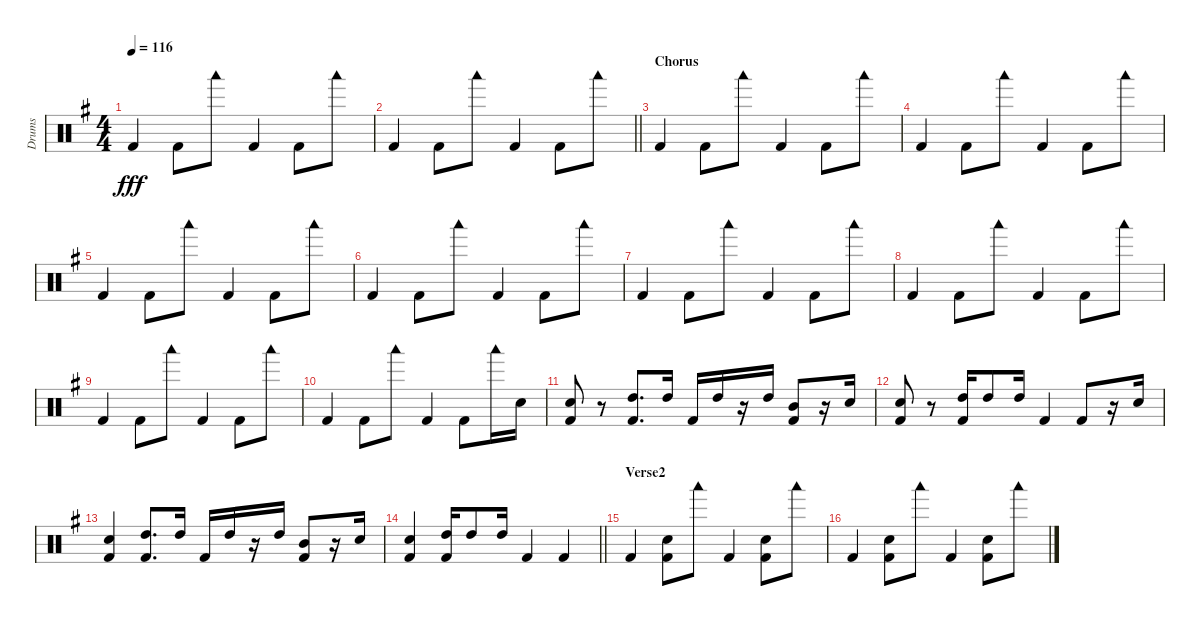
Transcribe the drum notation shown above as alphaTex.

\track ("Drums" "Drums") {instrument percussion}
\staff {score}
\articulation defaults
\ts (4 4)
\tempo 116
\clef neutral
\ks g "Kick (hit) 2".4{dy fff} "Kick (hit) 2".8 "Woodblock low (hit)".8 "Kick (hit) 2".4 "Kick (hit) 2".8 "Woodblock low (hit)".8
|
\barLineRight lightlight "Kick (hit) 2".4 "Kick (hit) 2".8 "Woodblock low (hit)".8 "Kick (hit) 2".4 "Kick (hit) 2".8 "Woodblock low (hit)".8
|
\section ("" "Chorus")
"Kick (hit) 2".4 "Kick (hit) 2".8 "Woodblock low (hit)".8 "Kick (hit) 2".4 "Kick (hit) 2".8 "Woodblock low (hit)".8 |
"Kick (hit) 2".4 "Kick (hit) 2".8 "Woodblock low (hit)".8 "Kick (hit) 2".4 "Kick (hit) 2".8 "Woodblock low (hit)".8 |
"Kick (hit) 2".4 "Kick (hit) 2".8 "Woodblock low (hit)".8 "Kick (hit) 2".4 "Kick (hit) 2".8 "Woodblock low (hit)".8 |
"Kick (hit) 2".4 "Kick (hit) 2".8 "Woodblock low (hit)".8 "Kick (hit) 2".4 "Kick (hit) 2".8 "Woodblock low (hit)".8 |
"Kick (hit) 2".4 "Kick (hit) 2".8 "Woodblock low (hit)".8 "Kick (hit) 2".4 "Kick (hit) 2".8 "Woodblock low (hit)".8 |
"Kick (hit) 2".4 "Kick (hit) 2".8 "Woodblock low (hit)".8 "Kick (hit) 2".4 "Kick (hit) 2".8 "Woodblock low (hit)".8 |
"Kick (hit) 2".4 "Kick (hit) 2".8 "Woodblock low (hit)".8 "Kick (hit) 2".4 "Kick (hit) 2".8 "Woodblock low (hit)".8 |
"Kick (hit) 2".4 "Kick (hit) 2".8 "Woodblock low (hit)".8 "Kick (hit) 2".4 "Kick (hit) 2".8 "Woodblock low (hit)".16 "Electric Snare (hit)".16 |
("Electric Snare (hit)" "Kick (hit) 2").8 r.8 ("High Tom (hit)" "Kick (hit) 2").8{d} "High Tom (hit)".16 "Kick (hit) 2".16 "High Tom (hit)".16 r.16 "High Tom (hit)".16 ("Mid Tom (hit)" "Kick (hit) 2").8 r.16 "Electric Snare (hit)".16 |
("Electric Snare (hit)" "Kick (hit) 2").8 r.8 ("High Tom (hit)" "Kick (hit) 2").16 "High Tom (hit)".8 "High Tom (hit)".16 "Kick (hit) 2".4 "Kick (hit) 2".8 r.16 "Electric Snare (hit)".16 |
("Electric Snare (hit)" "Kick (hit) 2").4 ("High Tom (hit)" "Kick (hit) 2").8{d} "High Tom (hit)".16 "Kick (hit) 2".16 "High Tom (hit)".16 r.16 "High Tom (hit)".16 ("Mid Tom (hit)" "Kick (hit) 2").8 r.16 "Electric Snare (hit)".16 |
\barLineRight lightlight
("Electric Snare (hit)" "Kick (hit) 2").4 ("High Tom (hit)" "Kick (hit) 2").16 "High Tom (hit)".8 "High Tom (hit)".16 "Kick (hit) 2".4 "Kick (hit) 2".4 |
\section ("" "Verse2")
"Kick (hit) 2".4 ("Electric Snare (hit)" "Kick (hit) 2").8 "Woodblock low (hit)".8 "Kick (hit) 2".4 ("Electric Snare (hit)" "Kick (hit) 2").8 "Woodblock low (hit)".8 |
"Kick (hit) 2".4 ("Electric Snare (hit)" "Kick (hit) 2").8 "Woodblock low (hit)".8 "Kick (hit) 2".4 ("Electric Snare (hit)" "Kick (hit) 2").8 "Woodblock low (hit)".8
